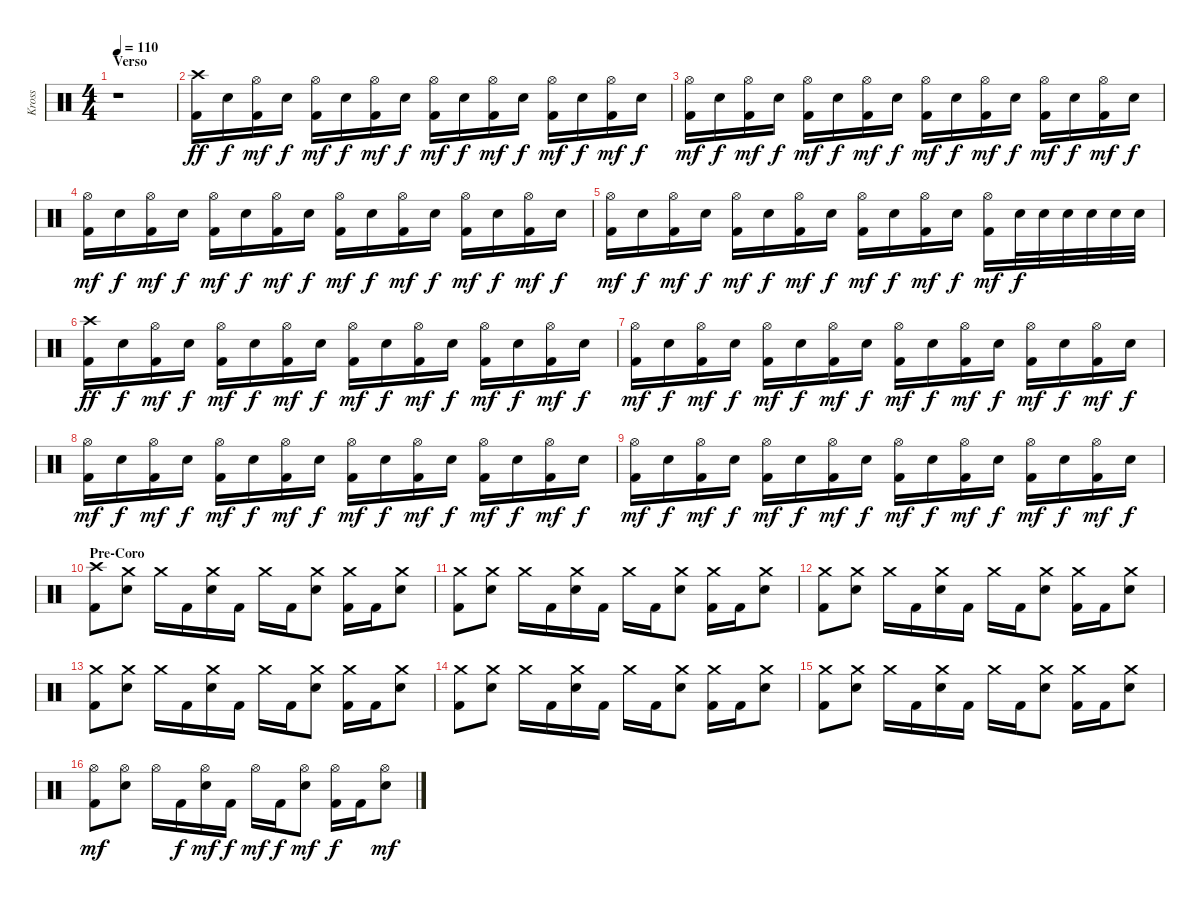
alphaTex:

\track ("Kross" "Kross") {instrument percussion}
\staff {score}
\articulation defaults
\ts (4 4)
\section ("" "Verso")
\tempo 110
\clef neutral
\ks c
r.1{dy ff} |
("Crash high (hit)" "Kick (hit) 2").16 "Electric Snare (hit)".16{dy f} ("Hi-Hat (open)" "Kick (hit) 2").16{dy mf} "Electric Snare (hit)".16{dy f} ("Hi-Hat (open)" "Kick (hit) 2").16{dy mf} "Electric Snare (hit)".16{dy f} ("Hi-Hat (open)" "Kick (hit) 2").16{dy mf} "Electric Snare (hit)".16{dy f} ("Hi-Hat (open)" "Kick (hit) 2").16{dy mf} "Electric Snare (hit)".16{dy f} ("Hi-Hat (open)" "Kick (hit) 2").16{dy mf} "Electric Snare (hit)".16{dy f} ("Hi-Hat (open)" "Kick (hit) 2").16{dy mf} "Electric Snare (hit)".16{dy f} ("Hi-Hat (open)" "Kick (hit) 2").16{dy mf} "Electric Snare (hit)".16{dy f} |
("Hi-Hat (open)" "Kick (hit) 2").16{dy mf} "Electric Snare (hit)".16{dy f} ("Hi-Hat (open)" "Kick (hit) 2").16{dy mf} "Electric Snare (hit)".16{dy f} ("Hi-Hat (open)" "Kick (hit) 2").16{dy mf} "Electric Snare (hit)".16{dy f} ("Hi-Hat (open)" "Kick (hit) 2").16{dy mf} "Electric Snare (hit)".16{dy f} ("Hi-Hat (open)" "Kick (hit) 2").16{dy mf} "Electric Snare (hit)".16{dy f} ("Hi-Hat (open)" "Kick (hit) 2").16{dy mf} "Electric Snare (hit)".16{dy f} ("Hi-Hat (open)" "Kick (hit) 2").16{dy mf} "Electric Snare (hit)".16{dy f} ("Hi-Hat (open)" "Kick (hit) 2").16{dy mf} "Electric Snare (hit)".16{dy f} |
("Hi-Hat (open)" "Kick (hit) 2").16{dy mf} "Electric Snare (hit)".16{dy f} ("Hi-Hat (open)" "Kick (hit) 2").16{dy mf} "Electric Snare (hit)".16{dy f} ("Hi-Hat (open)" "Kick (hit) 2").16{dy mf} "Electric Snare (hit)".16{dy f} ("Hi-Hat (open)" "Kick (hit) 2").16{dy mf} "Electric Snare (hit)".16{dy f} ("Hi-Hat (open)" "Kick (hit) 2").16{dy mf} "Electric Snare (hit)".16{dy f} ("Hi-Hat (open)" "Kick (hit) 2").16{dy mf} "Electric Snare (hit)".16{dy f} ("Hi-Hat (open)" "Kick (hit) 2").16{dy mf} "Electric Snare (hit)".16{dy f} ("Hi-Hat (open)" "Kick (hit) 2").16{dy mf} "Electric Snare (hit)".16{dy f} |
("Hi-Hat (open)" "Kick (hit) 2").16{dy mf} "Electric Snare (hit)".16{dy f} ("Hi-Hat (open)" "Kick (hit) 2").16{dy mf} "Electric Snare (hit)".16{dy f} ("Hi-Hat (open)" "Kick (hit) 2").16{dy mf} "Electric Snare (hit)".16{dy f} ("Hi-Hat (open)" "Kick (hit) 2").16{dy mf} "Electric Snare (hit)".16{dy f} ("Hi-Hat (open)" "Kick (hit) 2").16{dy mf} "Electric Snare (hit)".16{dy f} ("Hi-Hat (open)" "Kick (hit) 2").16{dy mf} "Electric Snare (hit)".16{dy f} ("Hi-Hat (open)" "Kick (hit) 2").16{dy mf} "Electric Snare (hit)".32{dy f} "Electric Snare (hit)".32 "Electric Snare (hit)".32 "Electric Snare (hit)".32 "Electric Snare (hit)".32 "Electric Snare (hit)".32 |
("Crash high (hit)" "Kick (hit) 2").16{dy ff} "Electric Snare (hit)".16{dy f} ("Hi-Hat (open)" "Kick (hit) 2").16{dy mf} "Electric Snare (hit)".16{dy f} ("Hi-Hat (open)" "Kick (hit) 2").16{dy mf} "Electric Snare (hit)".16{dy f} ("Hi-Hat (open)" "Kick (hit) 2").16{dy mf} "Electric Snare (hit)".16{dy f} ("Hi-Hat (open)" "Kick (hit) 2").16{dy mf} "Electric Snare (hit)".16{dy f} ("Hi-Hat (open)" "Kick (hit) 2").16{dy mf} "Electric Snare (hit)".16{dy f} ("Hi-Hat (open)" "Kick (hit) 2").16{dy mf} "Electric Snare (hit)".16{dy f} ("Hi-Hat (open)" "Kick (hit) 2").16{dy mf} "Electric Snare (hit)".16{dy f} |
("Hi-Hat (open)" "Kick (hit) 2").16{dy mf} "Electric Snare (hit)".16{dy f} ("Hi-Hat (open)" "Kick (hit) 2").16{dy mf} "Electric Snare (hit)".16{dy f} ("Hi-Hat (open)" "Kick (hit) 2").16{dy mf} "Electric Snare (hit)".16{dy f} ("Hi-Hat (open)" "Kick (hit) 2").16{dy mf} "Electric Snare (hit)".16{dy f} ("Hi-Hat (open)" "Kick (hit) 2").16{dy mf} "Electric Snare (hit)".16{dy f} ("Hi-Hat (open)" "Kick (hit) 2").16{dy mf} "Electric Snare (hit)".16{dy f} ("Hi-Hat (open)" "Kick (hit) 2").16{dy mf} "Electric Snare (hit)".16{dy f} ("Hi-Hat (open)" "Kick (hit) 2").16{dy mf} "Electric Snare (hit)".16{dy f} |
("Hi-Hat (open)" "Kick (hit) 2").16{dy mf} "Electric Snare (hit)".16{dy f} ("Hi-Hat (open)" "Kick (hit) 2").16{dy mf} "Electric Snare (hit)".16{dy f} ("Hi-Hat (open)" "Kick (hit) 2").16{dy mf} "Electric Snare (hit)".16{dy f} ("Hi-Hat (open)" "Kick (hit) 2").16{dy mf} "Electric Snare (hit)".16{dy f} ("Hi-Hat (open)" "Kick (hit) 2").16{dy mf} "Electric Snare (hit)".16{dy f} ("Hi-Hat (open)" "Kick (hit) 2").16{dy mf} "Electric Snare (hit)".16{dy f} ("Hi-Hat (open)" "Kick (hit) 2").16{dy mf} "Electric Snare (hit)".16{dy f} ("Hi-Hat (open)" "Kick (hit) 2").16{dy mf} "Electric Snare (hit)".16{dy f} |
("Hi-Hat (open)" "Kick (hit) 2").16{dy mf} "Electric Snare (hit)".16{dy f} ("Hi-Hat (open)" "Kick (hit) 2").16{dy mf} "Electric Snare (hit)".16{dy f} ("Hi-Hat (open)" "Kick (hit) 2").16{dy mf} "Electric Snare (hit)".16{dy f} ("Hi-Hat (open)" "Kick (hit) 2").16{dy mf} "Electric Snare (hit)".16{dy f} ("Hi-Hat (open)" "Kick (hit) 2").16{dy mf} "Electric Snare (hit)".16{dy f} ("Hi-Hat (open)" "Kick (hit) 2").16{dy mf} "Electric Snare (hit)".16{dy f} ("Hi-Hat (open)" "Kick (hit) 2").16{dy mf} "Electric Snare (hit)".16{dy f} ("Hi-Hat (open)" "Kick (hit) 2").16{dy mf} "Electric Snare (hit)".16{dy f} |
\section ("" "Pre-Coro")
("Crash high (hit)" "Kick (hit) 2").8 ("Crash medium (hit)" "Electric Snare (hit)").8 "Crash medium (hit)".16 "Kick (hit) 2".16 ("Crash medium (hit)" "Electric Snare (hit)").16 "Kick (hit) 2".16 "Crash medium (hit)".16 "Kick (hit) 2".16 ("Crash medium (hit)" "Electric Snare (hit)").8 ("Crash medium (hit)" "Kick (hit) 2").16 "Kick (hit) 2".16 ("Crash medium (hit)" "Electric Snare (hit)").8 |
("Crash medium (hit)" "Kick (hit) 2").8 ("Crash medium (hit)" "Electric Snare (hit)").8 "Crash medium (hit)".16 "Kick (hit) 2".16 ("Crash medium (hit)" "Electric Snare (hit)").16 "Kick (hit) 2".16 "Crash medium (hit)".16 "Kick (hit) 2".16 ("Crash medium (hit)" "Electric Snare (hit)").8 ("Crash medium (hit)" "Kick (hit) 2").16 "Kick (hit) 2".16 ("Crash medium (hit)" "Electric Snare (hit)").8 |
("Crash medium (hit)" "Kick (hit) 2").8 ("Crash medium (hit)" "Electric Snare (hit)").8 "Crash medium (hit)".16 "Kick (hit) 2".16 ("Crash medium (hit)" "Electric Snare (hit)").16 "Kick (hit) 2".16 "Crash medium (hit)".16 "Kick (hit) 2".16 ("Crash medium (hit)" "Electric Snare (hit)").8 ("Crash medium (hit)" "Kick (hit) 2").16 "Kick (hit) 2".16 ("Crash medium (hit)" "Electric Snare (hit)").8 |
("Crash medium (hit)" "Kick (hit) 2").8 ("Crash medium (hit)" "Electric Snare (hit)").8 "Crash medium (hit)".16 "Kick (hit) 2".16 ("Crash medium (hit)" "Electric Snare (hit)").16 "Kick (hit) 2".16 "Crash medium (hit)".16 "Kick (hit) 2".16 ("Crash medium (hit)" "Electric Snare (hit)").8 ("Crash medium (hit)" "Kick (hit) 2").16 "Kick (hit) 2".16 ("Crash medium (hit)" "Electric Snare (hit)").8 |
("Crash medium (hit)" "Kick (hit) 2").8 ("Crash medium (hit)" "Electric Snare (hit)").8 "Crash medium (hit)".16 "Kick (hit) 2".16 ("Crash medium (hit)" "Electric Snare (hit)").16 "Kick (hit) 2".16 "Crash medium (hit)".16 "Kick (hit) 2".16 ("Crash medium (hit)" "Electric Snare (hit)").8 ("Crash medium (hit)" "Kick (hit) 2").16 "Kick (hit) 2".16 ("Crash medium (hit)" "Electric Snare (hit)").8 |
("Crash medium (hit)" "Kick (hit) 2").8 ("Crash medium (hit)" "Electric Snare (hit)").8 "Crash medium (hit)".16 "Kick (hit) 2".16 ("Crash medium (hit)" "Electric Snare (hit)").16 "Kick (hit) 2".16 "Crash medium (hit)".16 "Kick (hit) 2".16 ("Crash medium (hit)" "Electric Snare (hit)").8 ("Crash medium (hit)" "Kick (hit) 2").16 "Kick (hit) 2".16 ("Crash medium (hit)" "Electric Snare (hit)").8 |
("Hi-Hat (open)" "Kick (hit) 2").8{dy mf} ("Hi-Hat (open)" "Electric Snare (hit)").8 "Hi-Hat (open)".16 "Kick (hit) 2".16{dy f} ("Hi-Hat (open)" "Electric Snare (hit)").16{dy mf} "Kick (hit) 2".16{dy f} "Hi-Hat (open)".16{dy mf} "Kick (hit) 2".16{dy f} ("Hi-Hat (open)" "Electric Snare (hit)").8{dy mf} ("Hi-Hat (open)" "Kick (hit) 2").16{dy f} "Kick (hit) 2".16 ("Hi-Hat (open)" "Electric Snare (hit)").8{dy mf}
